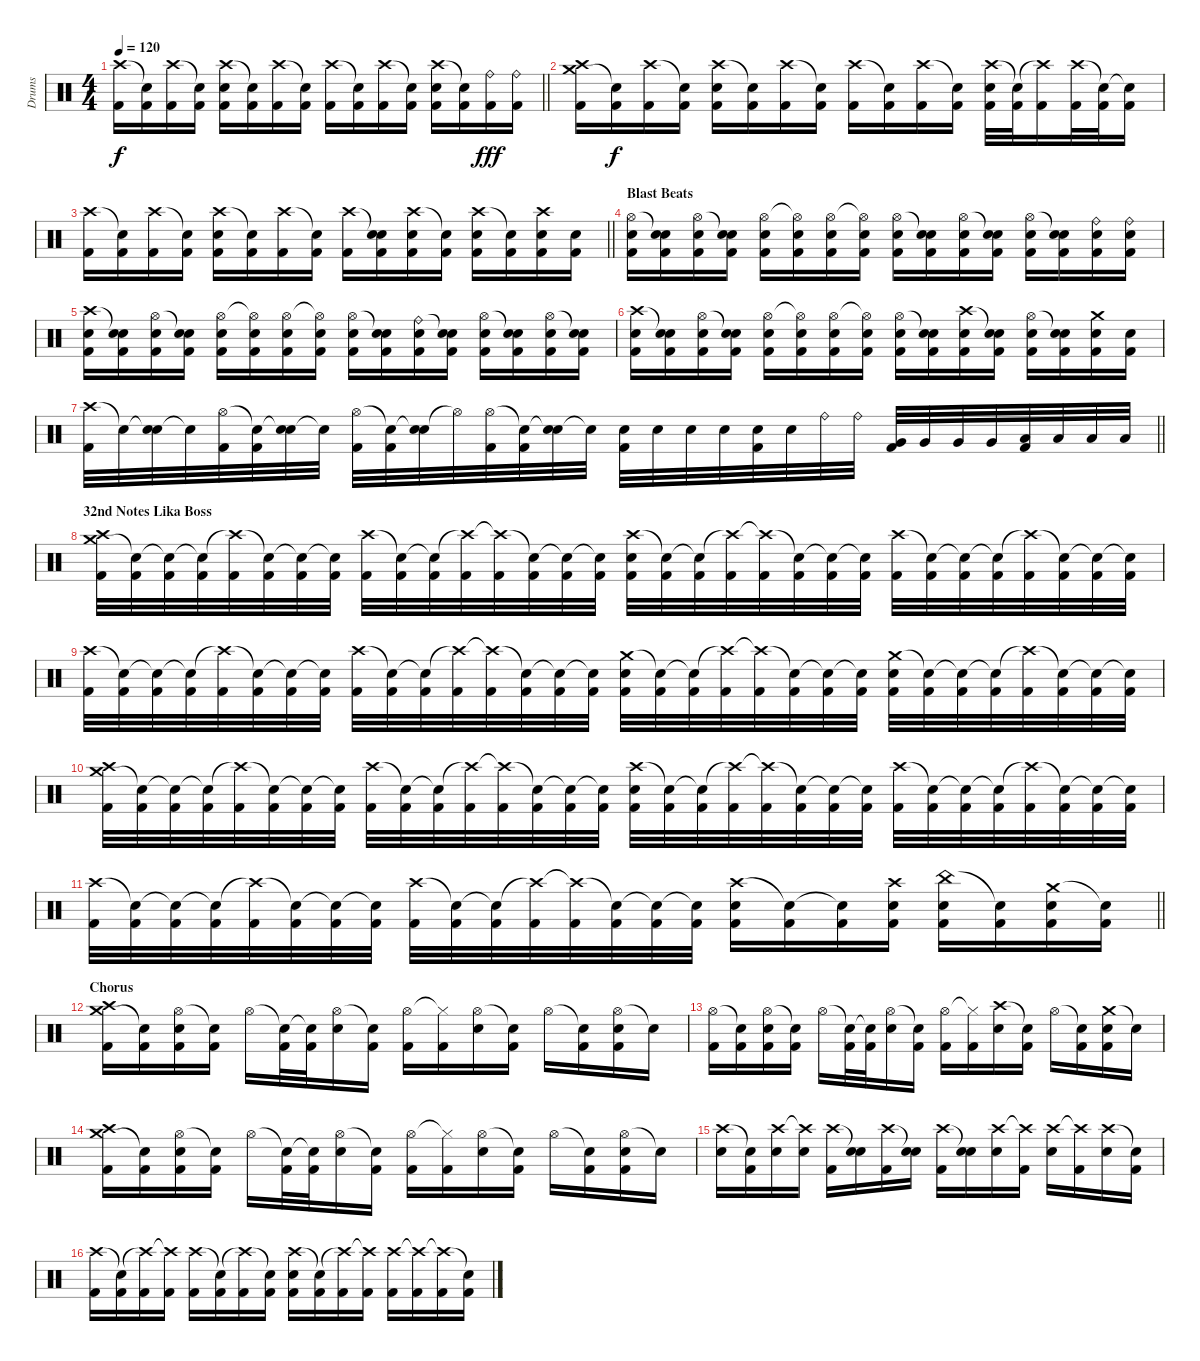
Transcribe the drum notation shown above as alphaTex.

\track ("Drums" "Drums") {instrument percussion}
\staff {score}
\articulation defaults
\ts (4 4)
\tempo 120
\clef neutral
\barLineRight lightlight
\ks c
("Crash high (hit)" "Kick (hit) 2").16{dy f} ("Snare (hit)"{t} "Kick (hit) 2").16 ("Crash high (hit)" "Kick (hit) 2").16 ("Snare (hit)"{t} "Kick (hit) 2").16 ("Crash high (hit)" "Electric Snare (hit)" "Kick (hit) 2").16 ("Snare (hit)"{t} "Kick (hit) 2").16 ("Crash high (hit)" "Kick (hit) 2").16 ("Snare (hit)"{t} "Kick (hit) 2").16 ("Crash high (hit)" "Kick (hit) 2").16 ("Snare (hit)"{t} "Kick (hit) 2").16 ("Crash high (hit)" "Kick (hit) 2").16 ("Snare (hit)"{t} "Kick (hit) 2").16 ("Crash high (hit)" "Electric Snare (hit)" "Kick (hit) 2").16 ("Snare (hit)"{t} "Kick (hit) 2").16 ("Ride (bell)" "Kick (hit) 2").16{dy fff} ("Ride (bell)" "Kick (hit) 2").16 |
("Crash medium (hit)" "Crash high (hit)" "Kick (hit) 2").16 ("Snare (hit)"{t} "Kick (hit) 2").16{dy f} ("Crash high (hit)" "Kick (hit) 2").16 ("Snare (hit)"{t} "Kick (hit) 2").16 ("Crash high (hit)" "Electric Snare (hit)" "Kick (hit) 2").16 ("Snare (hit)"{t} "Kick (hit) 2").16 ("Crash high (hit)" "Kick (hit) 2").16 ("Snare (hit)"{t} "Kick (hit) 2").16 ("Crash high (hit)" "Kick (hit) 2").16 ("Snare (hit)"{t} "Kick (hit) 2").16 ("Crash high (hit)" "Kick (hit) 2").16 ("Snare (hit)"{t} "Kick (hit) 2").16 ("Crash high (hit)" "Electric Snare (hit)" "Kick (hit) 2").32 ("Snare (hit)"{t} "Kick (hit) 2").32 ("Crash high (hit)"{t} "Kick (hit) 2").16 ("Crash high (hit)" "Kick (hit) 2").32 ("Snare (hit)"{t} "Kick (hit) 2").32 ("Snare (hit)"{t} "Kick (hit) 2").16 |
\barLineRight lightlight
("Crash high (hit)" "Kick (hit) 2").16 ("Snare (hit)"{t} "Kick (hit) 2").16 ("Crash high (hit)" "Kick (hit) 2").16 ("Snare (hit)"{t} "Kick (hit) 2").16 ("Crash high (hit)" "Electric Snare (hit)" "Kick (hit) 2").16 ("Snare (hit)"{t} "Kick (hit) 2").16 ("Crash high (hit)" "Kick (hit) 2").16 ("Snare (hit)"{t} "Kick (hit) 2").16 ("Crash high (hit)" "Kick (hit) 2").16 ("Snare (hit)"{t} "Electric Snare (hit)" "Kick (hit) 2").16 ("Crash high (hit)" "Electric Snare (hit)" "Kick (hit) 2").16 ("Snare (hit)"{t} "Kick (hit) 2").16 ("Crash high (hit)" "Electric Snare (hit)" "Kick (hit) 2").16 ("Snare (hit)"{t} "Kick (hit) 2").16 ("Crash high (hit)" "Electric Snare (hit)" "Kick (hit) 2").16 ("Electric Snare (hit)" "Kick (hit) 2").16 |
\section ("" "Blast Beats")
("Hi-Hat (open)" "Electric Snare (hit)" "Kick (hit) 2").16 ("Snare (hit)"{t} "Electric Snare (hit)" "Kick (hit) 2").16 ("Hi-Hat (open)" "Electric Snare (hit)" "Kick (hit) 2").16 ("Snare (hit)"{t} "Electric Snare (hit)" "Kick (hit) 2").16 ("Hi-Hat (open)" "Electric Snare (hit)" "Kick (hit) 2").16 ("Hi-Hat (open)"{t} "Electric Snare (hit)" "Kick (hit) 2").16 ("Hi-Hat (open)" "Electric Snare (hit)" "Kick (hit) 2").16 ("Hi-Hat (open)"{t} "Electric Snare (hit)" "Kick (hit) 2").16 ("Hi-Hat (open)" "Electric Snare (hit)" "Kick (hit) 2").16 ("Snare (hit)"{t} "Electric Snare (hit)" "Kick (hit) 2").16 ("Hi-Hat (open)" "Electric Snare (hit)" "Kick (hit) 2").16 ("Snare (hit)"{t} "Electric Snare (hit)" "Kick (hit) 2").16 ("Hi-Hat (open)" "Electric Snare (hit)" "Kick (hit) 2").16 ("Snare (hit)"{t} "Electric Snare (hit)" "Kick (hit) 2").16 ("Ride (bell)" "Electric Snare (hit)" "Kick (hit) 2").16 ("Ride (bell)" "Electric Snare (hit)" "Kick (hit) 2").16 |
("Crash high (hit)" "Electric Snare (hit)" "Kick (hit) 2").16 ("Snare (hit)"{t} "Electric Snare (hit)" "Kick (hit) 2").16 ("Hi-Hat (open)" "Electric Snare (hit)" "Kick (hit) 2").16 ("Snare (hit)"{t} "Electric Snare (hit)" "Kick (hit) 2").16 ("Hi-Hat (open)" "Electric Snare (hit)" "Kick (hit) 2").16 ("Hi-Hat (open)"{t} "Electric Snare (hit)" "Kick (hit) 2").16 ("Hi-Hat (open)" "Electric Snare (hit)" "Kick (hit) 2").16 ("Hi-Hat (open)"{t} "Electric Snare (hit)" "Kick (hit) 2").16 ("Hi-Hat (open)" "Electric Snare (hit)" "Kick (hit) 2").16 ("Snare (hit)"{t} "Electric Snare (hit)" "Kick (hit) 2").16 ("Ride (bell)" "Electric Snare (hit)" "Kick (hit) 2").16 ("Snare (hit)"{t} "Electric Snare (hit)" "Kick (hit) 2").16 ("Hi-Hat (open)" "Electric Snare (hit)" "Kick (hit) 2").16 ("Snare (hit)"{t} "Electric Snare (hit)" "Kick (hit) 2").16 ("Hi-Hat (open)" "Electric Snare (hit)" "Kick (hit) 2").16 ("Snare (hit)"{t} "Electric Snare (hit)" "Kick (hit) 2").16 |
("Crash high (hit)" "Electric Snare (hit)" "Kick (hit) 2").16 ("Snare (hit)"{t} "Electric Snare (hit)" "Kick (hit) 2").16 ("Hi-Hat (open)" "Electric Snare (hit)" "Kick (hit) 2").16 ("Snare (hit)"{t} "Electric Snare (hit)" "Kick (hit) 2").16 ("Hi-Hat (open)" "Electric Snare (hit)" "Kick (hit) 2").16 ("Hi-Hat (open)"{t} "Electric Snare (hit)" "Kick (hit) 2").16 ("Hi-Hat (open)" "Electric Snare (hit)" "Kick (hit) 2").16 ("Hi-Hat (open)"{t} "Electric Snare (hit)" "Kick (hit) 2").16 ("Hi-Hat (open)" "Electric Snare (hit)" "Kick (hit) 2").16 ("Snare (hit)"{t} "Electric Snare (hit)" "Kick (hit) 2").16 ("Crash high (hit)" "Electric Snare (hit)" "Kick (hit) 2").16 ("Snare (hit)"{t} "Electric Snare (hit)" "Kick (hit) 2").16 ("Hi-Hat (open)" "Electric Snare (hit)" "Kick (hit) 2").16 ("Snare (hit)"{t} "Electric Snare (hit)" "Kick (hit) 2").16 ("Crash medium (hit)" "Electric Snare (hit)" "Kick (hit) 2").16 ("Electric Snare (hit)" "Kick (hit) 2").16 |
\barLineRight lightlight
("Crash high (hit)" "Kick (hit) 2").32 "Snare (hit)"{t}.32 ("Snare (hit)"{t} "Electric Snare (hit)").32 "Snare (hit)"{t}.32 ("Hi-Hat (open)" "Kick (hit) 2").32 ("Snare (hit)"{t} "Kick (hit) 2").32 ("Snare (hit)"{t} "Electric Snare (hit)").32 "Snare (hit)"{t}.32 ("Hi-Hat (open)" "Kick (hit) 2").32 ("Snare (hit)"{t} "Kick (hit) 2").32 ("Snare (hit)"{t} "Electric Snare (hit)").32 "Hi-Hat (open)"{t}.32 ("Hi-Hat (open)" "Kick (hit) 2").32 ("Snare (hit)"{t} "Kick (hit) 2").32 ("Snare (hit)"{t} "Electric Snare (hit)").32 "Snare (hit)"{t}.32 ("Electric Snare (hit)" "Kick (hit) 2").32 "Electric Snare (hit)".32 "Electric Snare (hit)".32 "Electric Snare (hit)".32 ("Electric Snare (hit)" "Kick (hit) 2").32 "Electric Snare (hit)".32 "Ride (bell)".32 "Ride (bell)".32 ("Very Low Tom (hit)" "Kick (hit) 2").32 "Very Low Tom (hit)".32 "Very Low Tom (hit)".32 "Very Low Tom (hit)".32 ("Low Floor Tom (hit)" "Kick (hit) 2").32 "Low Floor Tom (hit)".32 "Low Floor Tom (hit)".32 "Low Floor Tom (hit)".32 |
\section ("" "32nd Notes Lika Boss")
("Crash medium (hit)" "Crash high (hit)" "Kick (hit) 2").32 ("Snare (hit)"{t} "Kick (hit) 2").32 ("Snare (hit)"{t} "Kick (hit) 2").32 ("Snare (hit)"{t} "Kick (hit) 2").32 ("Crash high (hit)"{t} "Kick (hit) 2").32 ("Snare (hit)"{t} "Kick (hit) 2").32 ("Snare (hit)"{t} "Kick (hit) 2").32 ("Snare (hit)"{t} "Kick (hit) 2").32 ("Crash high (hit)" "Kick (hit) 2").32 ("Snare (hit)"{t} "Kick (hit) 2").32 ("Snare (hit)"{t} "Kick (hit) 2").32 ("Crash high (hit)"{t} "Kick (hit) 2").32 ("Crash high (hit)"{t} "Kick (hit) 2").32 ("Snare (hit)"{t} "Kick (hit) 2").32 ("Snare (hit)"{t} "Kick (hit) 2").32 ("Snare (hit)"{t} "Kick (hit) 2").32 ("Crash high (hit)" "Electric Snare (hit)" "Kick (hit) 2").32 ("Snare (hit)"{t} "Kick (hit) 2").32 ("Snare (hit)"{t} "Kick (hit) 2").32 ("Crash high (hit)"{t} "Kick (hit) 2").32 ("Crash high (hit)"{t} "Kick (hit) 2").32 ("Snare (hit)"{t} "Kick (hit) 2").32 ("Snare (hit)"{t} "Kick (hit) 2").32 ("Snare (hit)"{t} "Kick (hit) 2").32 ("Crash high (hit)" "Kick (hit) 2").32 ("Snare (hit)"{t} "Kick (hit) 2").32 ("Snare (hit)"{t} "Kick (hit) 2").32 ("Snare (hit)"{t} "Kick (hit) 2").32 ("Crash high (hit)"{t} "Kick (hit) 2").32 ("Snare (hit)"{t} "Kick (hit) 2").32 ("Snare (hit)"{t} "Kick (hit) 2").32 ("Snare (hit)"{t} "Kick (hit) 2").32 |
("Crash high (hit)" "Kick (hit) 2").32 ("Snare (hit)"{t} "Kick (hit) 2").32 ("Snare (hit)"{t} "Kick (hit) 2").32 ("Snare (hit)"{t} "Kick (hit) 2").32 ("Crash high (hit)"{t} "Kick (hit) 2").32 ("Snare (hit)"{t} "Kick (hit) 2").32 ("Snare (hit)"{t} "Kick (hit) 2").32 ("Snare (hit)"{t} "Kick (hit) 2").32 ("Crash high (hit)" "Kick (hit) 2").32 ("Snare (hit)"{t} "Kick (hit) 2").32 ("Snare (hit)"{t} "Kick (hit) 2").32 ("Crash high (hit)"{t} "Kick (hit) 2").32 ("Crash high (hit)"{t} "Kick (hit) 2").32 ("Snare (hit)"{t} "Kick (hit) 2").32 ("Snare (hit)"{t} "Kick (hit) 2").32 ("Snare (hit)"{t} "Kick (hit) 2").32 ("Crash medium (hit)" "Electric Snare (hit)" "Kick (hit) 2").32 ("Snare (hit)"{t} "Kick (hit) 2").32 ("Snare (hit)"{t} "Kick (hit) 2").32 ("Crash high (hit)"{t} "Kick (hit) 2").32 ("Crash high (hit)"{t} "Kick (hit) 2").32 ("Snare (hit)"{t} "Kick (hit) 2").32 ("Snare (hit)"{t} "Kick (hit) 2").32 ("Snare (hit)"{t} "Kick (hit) 2").32 ("Crash medium (hit)" "Electric Snare (hit)" "Kick (hit) 2").32 ("Snare (hit)"{t} "Kick (hit) 2").32 ("Snare (hit)"{t} "Kick (hit) 2").32 ("Snare (hit)"{t} "Kick (hit) 2").32 ("Crash high (hit)"{t} "Kick (hit) 2").32 ("Snare (hit)"{t} "Kick (hit) 2").32 ("Snare (hit)"{t} "Kick (hit) 2").32 ("Snare (hit)"{t} "Kick (hit) 2").32 |
("Crash medium (hit)" "Crash high (hit)" "Kick (hit) 2").32 ("Snare (hit)"{t} "Kick (hit) 2").32 ("Snare (hit)"{t} "Kick (hit) 2").32 ("Snare (hit)"{t} "Kick (hit) 2").32 ("Crash high (hit)"{t} "Kick (hit) 2").32 ("Snare (hit)"{t} "Kick (hit) 2").32 ("Snare (hit)"{t} "Kick (hit) 2").32 ("Snare (hit)"{t} "Kick (hit) 2").32 ("Crash high (hit)" "Kick (hit) 2").32 ("Snare (hit)"{t} "Kick (hit) 2").32 ("Snare (hit)"{t} "Kick (hit) 2").32 ("Crash high (hit)"{t} "Kick (hit) 2").32 ("Crash high (hit)"{t} "Kick (hit) 2").32 ("Snare (hit)"{t} "Kick (hit) 2").32 ("Snare (hit)"{t} "Kick (hit) 2").32 ("Snare (hit)"{t} "Kick (hit) 2").32 ("Crash high (hit)" "Electric Snare (hit)" "Kick (hit) 2").32 ("Snare (hit)"{t} "Kick (hit) 2").32 ("Snare (hit)"{t} "Kick (hit) 2").32 ("Crash high (hit)"{t} "Kick (hit) 2").32 ("Crash high (hit)"{t} "Kick (hit) 2").32 ("Snare (hit)"{t} "Kick (hit) 2").32 ("Snare (hit)"{t} "Kick (hit) 2").32 ("Snare (hit)"{t} "Kick (hit) 2").32 ("Crash high (hit)" "Kick (hit) 2").32 ("Snare (hit)"{t} "Kick (hit) 2").32 ("Snare (hit)"{t} "Kick (hit) 2").32 ("Snare (hit)"{t} "Kick (hit) 2").32 ("Crash high (hit)"{t} "Kick (hit) 2").32 ("Snare (hit)"{t} "Kick (hit) 2").32 ("Snare (hit)"{t} "Kick (hit) 2").32 ("Snare (hit)"{t} "Kick (hit) 2").32 |
\barLineRight lightlight
("Crash high (hit)" "Kick (hit) 2").32 ("Snare (hit)"{t} "Kick (hit) 2").32 ("Snare (hit)"{t} "Kick (hit) 2").32 ("Snare (hit)"{t} "Kick (hit) 2").32 ("Crash high (hit)"{t} "Kick (hit) 2").32 ("Snare (hit)"{t} "Kick (hit) 2").32 ("Snare (hit)"{t} "Kick (hit) 2").32 ("Snare (hit)"{t} "Kick (hit) 2").32 ("Crash high (hit)" "Kick (hit) 2").32 ("Snare (hit)"{t} "Kick (hit) 2").32 ("Snare (hit)"{t} "Kick (hit) 2").32 ("Crash high (hit)"{t} "Kick (hit) 2").32 ("Crash high (hit)"{t} "Kick (hit) 2").32 ("Snare (hit)"{t} "Kick (hit) 2").32 ("Snare (hit)"{t} "Kick (hit) 2").32 ("Snare (hit)"{t} "Kick (hit) 2").32 ("Crash high (hit)" "Electric Snare (hit)" "Kick (hit) 2").16 ("Snare (hit)"{t} "Kick (hit) 2").16 ("Snare (hit)"{t} "Kick (hit) 2").16 ("Crash high (hit)" "Electric Snare (hit)" "Kick (hit) 2").16 ("China (hit)" "Electric Snare (hit)" "Kick (hit) 2").16 ("Snare (hit)"{t} "Kick (hit) 2").16 ("Crash medium (hit)" "Electric Snare (hit)" "Kick (hit) 2").16 ("Snare (hit)"{t} "Kick (hit) 2").16 |
\section ("" "Chorus ")
("Crash medium (hit)" "Crash high (hit)" "Kick (hit) 2").16 ("Snare (hit)"{t} "Kick (hit) 2").16 ("Hi-Hat (open)" "Electric Snare (hit)" "Kick (hit) 2").16 ("Snare (hit)"{t} "Kick (hit) 2").16 "Hi-Hat (open)".16 ("Snare (hit)"{t} "Kick (hit) 2").32 ("Snare (hit)"{t} "Kick (hit) 2").32 ("Hi-Hat (open)" "Electric Snare (hit)").16 ("Snare (hit)"{t} "Kick (hit) 2").16 ("Hi-Hat (open)" "Kick (hit) 2").16 ("Hi-Hat (closed)"{t} "Kick (hit) 2").16 ("Hi-Hat (open)" "Electric Snare (hit)").16 ("Snare (hit)"{t} "Kick (hit) 2").16 "Hi-Hat (open)".16 ("Snare (hit)"{t} "Kick (hit) 2").16 ("Hi-Hat (open)" "Electric Snare (hit)" "Kick (hit) 2").16 "Snare (hit)"{t}.16 |
("Hi-Hat (open)" "Kick (hit) 2").16 ("Snare (hit)"{t} "Kick (hit) 2").16 ("Hi-Hat (open)" "Electric Snare (hit)" "Kick (hit) 2").16 ("Snare (hit)"{t} "Kick (hit) 2").16 "Hi-Hat (open)".16 ("Snare (hit)"{t} "Kick (hit) 2").32 ("Snare (hit)"{t} "Kick (hit) 2").32 ("Hi-Hat (open)" "Electric Snare (hit)").16 ("Snare (hit)"{t} "Kick (hit) 2").16 ("Hi-Hat (open)" "Kick (hit) 2").16 ("Hi-Hat (closed)"{t} "Kick (hit) 2").16 ("Crash high (hit)" "Electric Snare (hit)").16 ("Snare (hit)"{t} "Kick (hit) 2").16 "Hi-Hat (open)".16 ("Snare (hit)"{t} "Kick (hit) 2").16 ("Crash medium (hit)" "Electric Snare (hit)" "Kick (hit) 2").16 "Snare (hit)"{t}.16 |
("Crash medium (hit)" "Crash high (hit)" "Kick (hit) 2").16 ("Snare (hit)"{t} "Kick (hit) 2").16 ("Hi-Hat (open)" "Electric Snare (hit)" "Kick (hit) 2").16 ("Snare (hit)"{t} "Kick (hit) 2").16 "Hi-Hat (open)".16 ("Snare (hit)"{t} "Kick (hit) 2").32 ("Snare (hit)"{t} "Kick (hit) 2").32 ("Hi-Hat (open)" "Electric Snare (hit)").16 ("Snare (hit)"{t} "Kick (hit) 2").16 ("Hi-Hat (open)" "Kick (hit) 2").16 ("Hi-Hat (closed)"{t} "Kick (hit) 2").16 ("Hi-Hat (open)" "Electric Snare (hit)").16 ("Snare (hit)"{t} "Kick (hit) 2").16 "Hi-Hat (open)".16 ("Snare (hit)"{t} "Kick (hit) 2").16 ("Hi-Hat (open)" "Electric Snare (hit)" "Kick (hit) 2").16 "Snare (hit)"{t}.16 |
("Crash high (hit)" "Electric Snare (hit)").16 ("Snare (hit)"{t} "Kick (hit) 2").16 ("Crash high (hit)" "Electric Snare (hit)").16 ("Crash high (hit)"{t} "Electric Snare (hit)").16 ("Crash high (hit)" "Kick (hit) 2").16 ("Snare (hit)"{t} "Electric Snare (hit)").16 ("Crash high (hit)" "Kick (hit) 2").16 ("Snare (hit)"{t} "Electric Snare (hit)").16 ("Crash high (hit)" "Kick (hit) 2").16 ("Snare (hit)"{t} "Electric Snare (hit)").16 ("Crash high (hit)" "Electric Snare (hit)").16 ("Crash high (hit)"{t} "Kick (hit) 2").16 ("Crash high (hit)" "Electric Snare (hit)").16 ("Crash high (hit)"{t} "Kick (hit) 2").16 ("Crash high (hit)" "Electric Snare (hit)").16 ("Snare (hit)"{t} "Kick (hit) 2").16 |
("Crash high (hit)" "Kick (hit) 2").16 ("Snare (hit)"{t} "Kick (hit) 2").16 ("Crash high (hit)"{t} "Kick (hit) 2").16 ("Crash high (hit)"{t} "Kick (hit) 2").16 ("Crash high (hit)" "Kick (hit) 2").16 ("Snare (hit)"{t} "Kick (hit) 2").16 ("Crash high (hit)"{t} "Kick (hit) 2").16 ("Snare (hit)"{t} "Kick (hit) 2").16 ("Crash high (hit)" "Electric Snare (hit)" "Kick (hit) 2").16 ("Snare (hit)"{t} "Kick (hit) 2").16 ("Crash high (hit)"{t} "Kick (hit) 2").16 ("Crash high (hit)"{t} "Kick (hit) 2").16 ("Crash high (hit)" "Kick (hit) 2").16 ("Crash high (hit)"{t} "Kick (hit) 2").16 ("Crash high (hit)"{t} "Kick (hit) 2").16 ("Snare (hit)"{t} "Kick (hit) 2").16
